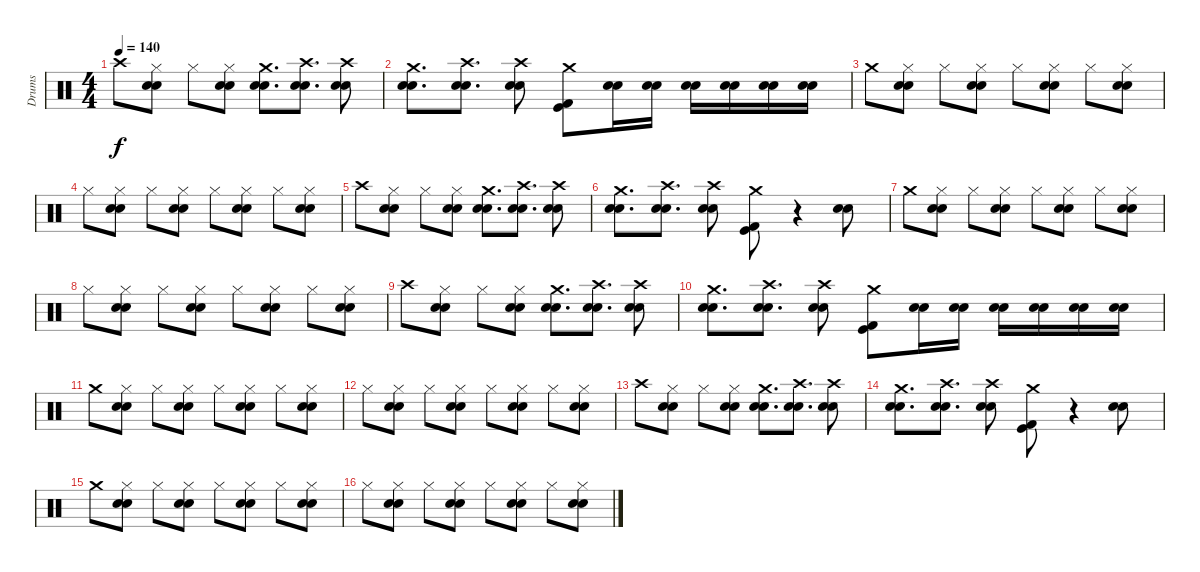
\track ("Drums" "Drums") {instrument percussion}
\staff {score}
\articulation defaults
\ts (4 4)
\tempo 140
\clef neutral
\ks c "Crash high (hit)".8{dy f}
("Hi-Hat (closed)" "Electric Snare (hit)" "Snare (hit) 2").8 "Hi-Hat (closed)".8 ("Hi-Hat (closed)" "Electric Snare (hit)" "Snare (hit) 2").8 ("Crash medium (hit)" "Electric Snare (hit)" "Snare (hit) 2").8{d} ("Crash high (hit)" "Electric Snare (hit)" "Snare (hit) 2").8{d} ("Crash high (hit)" "Electric Snare (hit)" "Snare (hit) 2").8 |
("Crash medium (hit)" "Electric Snare (hit)" "Snare (hit) 2").8{d} ("Crash high (hit)" "Electric Snare (hit)" "Snare (hit) 2").8{d} ("Crash high (hit)" "Electric Snare (hit)" "Snare (hit) 2").8 ("Kick (hit) 2" "Kick (hit)" "Crash medium (hit)").8 ("Electric Snare (hit)" "Snare (hit) 2").16 ("Electric Snare (hit)" "Snare (hit) 2").16 ("Electric Snare (hit)" "Snare (hit) 2").16 ("Electric Snare (hit)" "Snare (hit) 2").16 ("Electric Snare (hit)" "Snare (hit) 2").16 ("Electric Snare (hit)" "Snare (hit) 2").16 |
"Crash medium (hit)".8 ("Hi-Hat (closed)" "Electric Snare (hit)" "Snare (hit) 2").8 "Hi-Hat (closed)".8 ("Hi-Hat (closed)" "Electric Snare (hit)" "Snare (hit) 2").8 "Hi-Hat (closed)".8 ("Hi-Hat (closed)" "Electric Snare (hit)" "Snare (hit) 2").8 "Hi-Hat (closed)".8 ("Hi-Hat (closed)" "Electric Snare (hit)" "Snare (hit) 2").8 |
"Hi-Hat (closed)".8 ("Hi-Hat (closed)" "Electric Snare (hit)" "Snare (hit) 2").8 "Hi-Hat (closed)".8 ("Hi-Hat (closed)" "Electric Snare (hit)" "Snare (hit) 2").8 "Hi-Hat (closed)".8 ("Hi-Hat (closed)" "Electric Snare (hit)" "Snare (hit) 2").8 "Hi-Hat (closed)".8 ("Hi-Hat (closed)" "Electric Snare (hit)" "Snare (hit) 2").8 |
"Crash high (hit)".8 ("Hi-Hat (closed)" "Electric Snare (hit)" "Snare (hit) 2").8 "Hi-Hat (closed)".8 ("Hi-Hat (closed)" "Electric Snare (hit)" "Snare (hit) 2").8 ("Crash medium (hit)" "Electric Snare (hit)" "Snare (hit) 2").8{d} ("Crash high (hit)" "Electric Snare (hit)" "Snare (hit) 2").8{d} ("Crash high (hit)" "Electric Snare (hit)" "Snare (hit) 2").8 |
("Crash medium (hit)" "Electric Snare (hit)" "Snare (hit) 2").8{d} ("Crash high (hit)" "Electric Snare (hit)" "Snare (hit) 2").8{d} ("Crash high (hit)" "Electric Snare (hit)" "Snare (hit) 2").8 ("Kick (hit) 2" "Kick (hit)" "Crash medium (hit)").8 r.4 ("Electric Snare (hit)" "Snare (hit) 2").8 |
"Crash medium (hit)".8 ("Hi-Hat (closed)" "Electric Snare (hit)" "Snare (hit) 2").8 "Hi-Hat (closed)".8 ("Hi-Hat (closed)" "Electric Snare (hit)" "Snare (hit) 2").8 "Hi-Hat (closed)".8 ("Hi-Hat (closed)" "Electric Snare (hit)" "Snare (hit) 2").8 "Hi-Hat (closed)".8 ("Hi-Hat (closed)" "Electric Snare (hit)" "Snare (hit) 2").8 |
"Hi-Hat (closed)".8 ("Hi-Hat (closed)" "Electric Snare (hit)" "Snare (hit) 2").8 "Hi-Hat (closed)".8 ("Hi-Hat (closed)" "Electric Snare (hit)" "Snare (hit) 2").8 "Hi-Hat (closed)".8 ("Hi-Hat (closed)" "Electric Snare (hit)" "Snare (hit) 2").8 "Hi-Hat (closed)".8 ("Hi-Hat (closed)" "Electric Snare (hit)" "Snare (hit) 2").8 |
"Crash high (hit)".8 ("Hi-Hat (closed)" "Electric Snare (hit)" "Snare (hit) 2").8 "Hi-Hat (closed)".8 ("Hi-Hat (closed)" "Electric Snare (hit)" "Snare (hit) 2").8 ("Crash medium (hit)" "Electric Snare (hit)" "Snare (hit) 2").8{d} ("Crash high (hit)" "Electric Snare (hit)" "Snare (hit) 2").8{d} ("Crash high (hit)" "Electric Snare (hit)" "Snare (hit) 2").8 |
("Crash medium (hit)" "Electric Snare (hit)" "Snare (hit) 2").8{d} ("Crash high (hit)" "Electric Snare (hit)" "Snare (hit) 2").8{d} ("Crash high (hit)" "Electric Snare (hit)" "Snare (hit) 2").8 ("Kick (hit) 2" "Kick (hit)" "Crash medium (hit)").8 ("Electric Snare (hit)" "Snare (hit) 2").16 ("Electric Snare (hit)" "Snare (hit) 2").16 ("Electric Snare (hit)" "Snare (hit) 2").16 ("Electric Snare (hit)" "Snare (hit) 2").16 ("Electric Snare (hit)" "Snare (hit) 2").16 ("Electric Snare (hit)" "Snare (hit) 2").16 |
"Crash medium (hit)".8 ("Hi-Hat (closed)" "Electric Snare (hit)" "Snare (hit) 2").8 "Hi-Hat (closed)".8 ("Hi-Hat (closed)" "Electric Snare (hit)" "Snare (hit) 2").8 "Hi-Hat (closed)".8 ("Hi-Hat (closed)" "Electric Snare (hit)" "Snare (hit) 2").8 "Hi-Hat (closed)".8 ("Hi-Hat (closed)" "Electric Snare (hit)" "Snare (hit) 2").8 |
"Hi-Hat (closed)".8 ("Hi-Hat (closed)" "Electric Snare (hit)" "Snare (hit) 2").8 "Hi-Hat (closed)".8 ("Hi-Hat (closed)" "Electric Snare (hit)" "Snare (hit) 2").8 "Hi-Hat (closed)".8 ("Hi-Hat (closed)" "Electric Snare (hit)" "Snare (hit) 2").8 "Hi-Hat (closed)".8 ("Hi-Hat (closed)" "Electric Snare (hit)" "Snare (hit) 2").8 |
"Crash high (hit)".8 ("Hi-Hat (closed)" "Electric Snare (hit)" "Snare (hit) 2").8 "Hi-Hat (closed)".8 ("Hi-Hat (closed)" "Electric Snare (hit)" "Snare (hit) 2").8 ("Crash medium (hit)" "Electric Snare (hit)" "Snare (hit) 2").8{d} ("Crash high (hit)" "Electric Snare (hit)" "Snare (hit) 2").8{d} ("Crash high (hit)" "Electric Snare (hit)" "Snare (hit) 2").8 |
("Crash medium (hit)" "Electric Snare (hit)" "Snare (hit) 2").8{d} ("Crash high (hit)" "Electric Snare (hit)" "Snare (hit) 2").8{d} ("Crash high (hit)" "Electric Snare (hit)" "Snare (hit) 2").8 ("Kick (hit) 2" "Kick (hit)" "Crash medium (hit)").8 r.4 ("Electric Snare (hit)" "Snare (hit) 2").8 |
"Crash medium (hit)".8 ("Hi-Hat (closed)" "Electric Snare (hit)" "Snare (hit) 2").8 "Hi-Hat (closed)".8 ("Hi-Hat (closed)" "Electric Snare (hit)" "Snare (hit) 2").8 "Hi-Hat (closed)".8 ("Hi-Hat (closed)" "Electric Snare (hit)" "Snare (hit) 2").8 "Hi-Hat (closed)".8 ("Hi-Hat (closed)" "Electric Snare (hit)" "Snare (hit) 2").8 |
"Hi-Hat (closed)".8 ("Hi-Hat (closed)" "Electric Snare (hit)" "Snare (hit) 2").8 "Hi-Hat (closed)".8 ("Hi-Hat (closed)" "Electric Snare (hit)" "Snare (hit) 2").8 "Hi-Hat (closed)".8 ("Hi-Hat (closed)" "Electric Snare (hit)" "Snare (hit) 2").8 "Hi-Hat (closed)".8 ("Hi-Hat (closed)" "Electric Snare (hit)" "Snare (hit) 2").8
